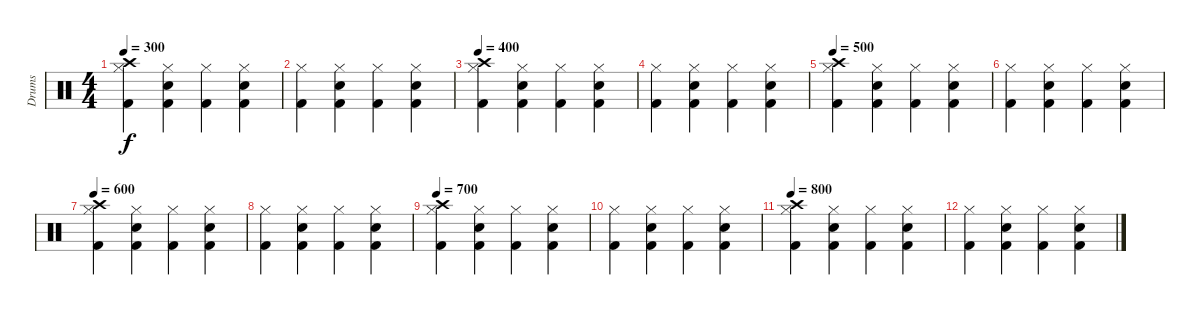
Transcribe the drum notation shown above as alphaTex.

\track ("Drums" "Drums") {instrument percussion}
\staff {score}
\articulation defaults
\ts (4 4)
\tempo 300
\clef neutral
\ks c
("Hi-Hat (closed)" "Crash high (hit)" "Kick (hit) 2").4{dy f} ("Hi-Hat (closed)" "Electric Snare (hit)" "Kick (hit) 2").4 ("Hi-Hat (closed)" "Kick (hit) 2").4 ("Hi-Hat (closed)" "Electric Snare (hit)" "Kick (hit) 2").4 |
("Hi-Hat (closed)" "Kick (hit) 2").4 ("Hi-Hat (closed)" "Electric Snare (hit)" "Kick (hit) 2").4 ("Hi-Hat (closed)" "Kick (hit) 2").4 ("Hi-Hat (closed)" "Electric Snare (hit)" "Kick (hit) 2").4 |
\tempo 400
("Hi-Hat (closed)" "Crash high (hit)" "Kick (hit) 2").4 ("Hi-Hat (closed)" "Electric Snare (hit)" "Kick (hit) 2").4 ("Hi-Hat (closed)" "Kick (hit) 2").4 ("Hi-Hat (closed)" "Electric Snare (hit)" "Kick (hit) 2").4 |
("Hi-Hat (closed)" "Kick (hit) 2").4 ("Hi-Hat (closed)" "Electric Snare (hit)" "Kick (hit) 2").4 ("Hi-Hat (closed)" "Kick (hit) 2").4 ("Hi-Hat (closed)" "Electric Snare (hit)" "Kick (hit) 2").4 |
\tempo 500
("Hi-Hat (closed)" "Crash high (hit)" "Kick (hit) 2").4 ("Hi-Hat (closed)" "Electric Snare (hit)" "Kick (hit) 2").4 ("Hi-Hat (closed)" "Kick (hit) 2").4 ("Hi-Hat (closed)" "Electric Snare (hit)" "Kick (hit) 2").4 |
("Hi-Hat (closed)" "Kick (hit) 2").4 ("Hi-Hat (closed)" "Electric Snare (hit)" "Kick (hit) 2").4 ("Hi-Hat (closed)" "Kick (hit) 2").4 ("Hi-Hat (closed)" "Electric Snare (hit)" "Kick (hit) 2").4 |
\tempo 600
("Hi-Hat (closed)" "Crash high (hit)" "Kick (hit) 2").4 ("Hi-Hat (closed)" "Electric Snare (hit)" "Kick (hit) 2").4 ("Hi-Hat (closed)" "Kick (hit) 2").4 ("Hi-Hat (closed)" "Electric Snare (hit)" "Kick (hit) 2").4 |
("Hi-Hat (closed)" "Kick (hit) 2").4 ("Hi-Hat (closed)" "Electric Snare (hit)" "Kick (hit) 2").4 ("Hi-Hat (closed)" "Kick (hit) 2").4 ("Hi-Hat (closed)" "Electric Snare (hit)" "Kick (hit) 2").4 |
\tempo 700
("Hi-Hat (closed)" "Crash high (hit)" "Kick (hit) 2").4 ("Hi-Hat (closed)" "Electric Snare (hit)" "Kick (hit) 2").4 ("Hi-Hat (closed)" "Kick (hit) 2").4 ("Hi-Hat (closed)" "Electric Snare (hit)" "Kick (hit) 2").4 |
("Hi-Hat (closed)" "Kick (hit) 2").4 ("Hi-Hat (closed)" "Electric Snare (hit)" "Kick (hit) 2").4 ("Hi-Hat (closed)" "Kick (hit) 2").4 ("Hi-Hat (closed)" "Electric Snare (hit)" "Kick (hit) 2").4 |
\tempo 800
("Hi-Hat (closed)" "Crash high (hit)" "Kick (hit) 2").4 ("Hi-Hat (closed)" "Electric Snare (hit)" "Kick (hit) 2").4 ("Hi-Hat (closed)" "Kick (hit) 2").4 ("Hi-Hat (closed)" "Electric Snare (hit)" "Kick (hit) 2").4 |
("Hi-Hat (closed)" "Kick (hit) 2").4 ("Hi-Hat (closed)" "Electric Snare (hit)" "Kick (hit) 2").4 ("Hi-Hat (closed)" "Kick (hit) 2").4 ("Hi-Hat (closed)" "Electric Snare (hit)" "Kick (hit) 2").4
